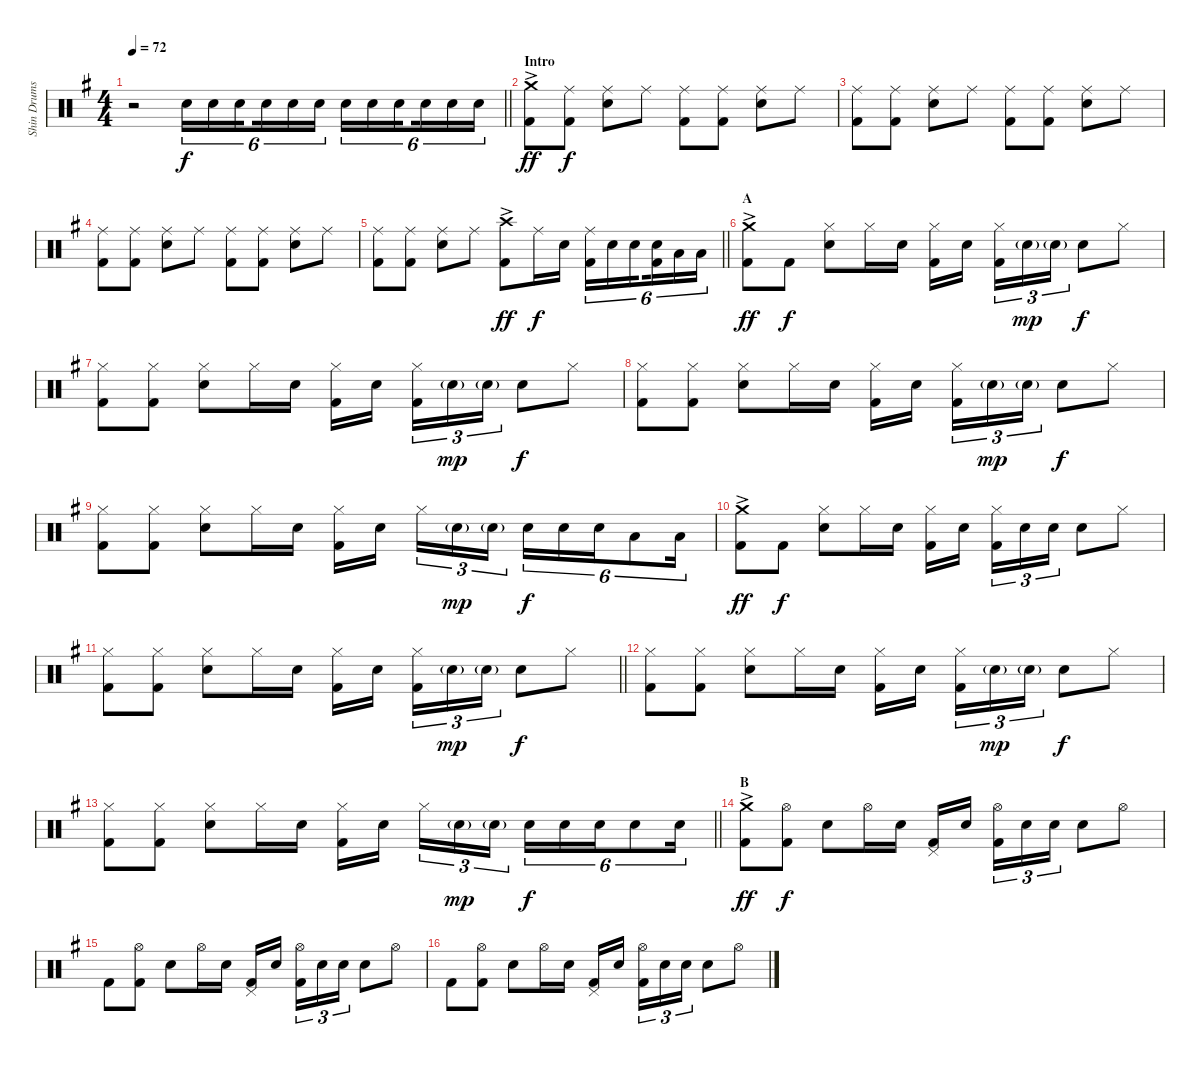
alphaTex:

\track ("Shin Drums" "Shin Drums") {instrument percussion}
\staff {score}
\articulation defaults
\ts (4 4)
\tempo 72
\clef neutral
\barLineRight lightlight
\ks g
r.2{dy f} "Snare (hit) 2".16{tu (6 4)} "Snare (hit) 2".16{tu (6 4)} "Snare (hit) 2".16{tu (6 4) beam splitsecondary} "Snare (hit) 2".16{tu (6 4)} "Snare (hit) 2".16{tu (6 4)} "Snare (hit) 2".16{tu (6 4)} "Snare (hit) 2".16{tu (6 4)} "Snare (hit) 2".16{tu (6 4)} "Snare (hit) 2".16{tu (6 4) beam splitsecondary} "Snare (hit) 2".16{tu (6 4)} "Snare (hit) 2".16{tu (6 4)} "Snare (hit) 2".16{tu (6 4)} |
\section ("" "Intro")
("Crash medium (hit)"{ac} "Kick (hit) 2"{ac}).8{dy ff} ("Ride (middle)" "Kick (hit) 2").8{dy f} ("Ride (middle)" "Snare (hit) 2").8 "Ride (middle)".8 ("Ride (middle)" "Kick (hit) 2").8 ("Ride (middle)" "Kick (hit) 2").8 ("Ride (middle)" "Snare (hit) 2").8 "Ride (middle)".8 |
("Ride (middle)" "Kick (hit) 2").8 ("Ride (middle)" "Kick (hit) 2").8 ("Ride (middle)" "Snare (hit) 2").8 "Ride (middle)".8 ("Ride (middle)" "Kick (hit) 2").8 ("Ride (middle)" "Kick (hit) 2").8 ("Ride (middle)" "Snare (hit) 2").8 "Ride (middle)".8 |
("Ride (middle)" "Kick (hit) 2").8 ("Ride (middle)" "Kick (hit) 2").8 ("Ride (middle)" "Snare (hit) 2").8 "Ride (middle)".8 ("Ride (middle)" "Kick (hit) 2").8 ("Ride (middle)" "Kick (hit) 2").8 ("Ride (middle)" "Snare (hit) 2").8 "Ride (middle)".8 |
\barLineRight lightlight
("Ride (middle)" "Kick (hit) 2").8 ("Ride (middle)" "Kick (hit) 2").8 ("Ride (middle)" "Snare (hit) 2").8 "Ride (middle)".8 ("Crash high (hit)"{ac} "Kick (hit) 2"{ac}).8{dy ff} "Ride (middle)".16{dy f} "Snare (hit) 2".16 ("Ride (middle)" "Kick (hit) 2").16{tu (6 4)} "Snare (hit) 2".16{tu (6 4)} "Snare (hit) 2".16{tu (6 4) beam splitsecondary} ("Snare (hit) 2" "Kick (hit) 2").16{tu (6 4)} "Low Tom (hit)".16{tu (6 4)} "Low Tom (hit)".16{tu (6 4)} |
\section ("" "A")
("Crash medium (hit)"{ac} "Kick (hit) 2"{ac}).8{dy ff} "Kick (hit) 2".8{dy f} ("Hi-Hat (closed)" "Snare (hit) 2").8 "Hi-Hat (closed)".16 "Snare (hit) 2".16 ("Hi-Hat (closed)" "Kick (hit) 2").16 "Snare (hit) 2".16{beam splitsecondary} ("Hi-Hat (closed)" "Kick (hit) 2").16{tu (3 2)} "Snare (hit) 2"{g}.16{tu (3 2) dy mp} "Snare (hit) 2"{g}.16{tu (3 2)} "Snare (hit) 2".8{dy f} "Hi-Hat (closed)".8 |
("Hi-Hat (closed)" "Kick (hit) 2").8 ("Hi-Hat (closed)" "Kick (hit) 2").8 ("Hi-Hat (closed)" "Snare (hit) 2").8 "Hi-Hat (closed)".16 "Snare (hit) 2".16 ("Hi-Hat (closed)" "Kick (hit) 2").16 "Snare (hit) 2".16{beam splitsecondary} ("Hi-Hat (closed)" "Kick (hit) 2").16{tu (3 2)} "Snare (hit) 2"{g}.16{tu (3 2) dy mp} "Snare (hit) 2"{g}.16{tu (3 2)} "Snare (hit) 2".8{dy f} "Hi-Hat (closed)".8 |
("Hi-Hat (closed)" "Kick (hit) 2").8 ("Hi-Hat (closed)" "Kick (hit) 2").8 ("Hi-Hat (closed)" "Snare (hit) 2").8 "Hi-Hat (closed)".16 "Snare (hit) 2".16 ("Hi-Hat (closed)" "Kick (hit) 2").16 "Snare (hit) 2".16{beam splitsecondary} ("Hi-Hat (closed)" "Kick (hit) 2").16{tu (3 2)} "Snare (hit) 2"{g}.16{tu (3 2) dy mp} "Snare (hit) 2"{g}.16{tu (3 2)} "Snare (hit) 2".8{dy f} "Hi-Hat (closed)".8 |
("Hi-Hat (closed)" "Kick (hit) 2").8 ("Hi-Hat (closed)" "Kick (hit) 2").8 ("Hi-Hat (closed)" "Snare (hit) 2").8 "Hi-Hat (closed)".16 "Snare (hit) 2".16 ("Hi-Hat (closed)" "Kick (hit) 2").16 "Snare (hit) 2".16{beam splitsecondary} "Hi-Hat (closed)".16{tu (3 2)} "Snare (hit) 2"{g}.16{tu (3 2) dy mp} "Snare (hit) 2"{g}.16{tu (3 2)} "Snare (hit) 2".16{tu (6 4) dy f} "Snare (hit) 2".16{tu (6 4)} "Snare (hit) 2".16{tu (6 4)} "Low Tom (hit)".8{tu (6 4)} "Low Tom (hit)".16{tu (6 4)} |
("Crash medium (hit)"{ac} "Kick (hit) 2"{ac}).8{dy ff} "Kick (hit) 2".8{dy f} ("Hi-Hat (closed)" "Snare (hit) 2").8 "Hi-Hat (closed)".16 "Snare (hit) 2".16 ("Hi-Hat (closed)" "Kick (hit) 2").16 "Snare (hit) 2".16{beam splitsecondary} ("Hi-Hat (closed)" "Kick (hit) 2").16{tu (3 2)} "Snare (hit) 2".16{tu (3 2)} "Snare (hit) 2".16{tu (3 2)} "Snare (hit) 2".8 "Hi-Hat (closed)".8 |
\barLineRight lightlight
("Hi-Hat (closed)" "Kick (hit) 2").8 ("Hi-Hat (closed)" "Kick (hit) 2").8 ("Hi-Hat (closed)" "Snare (hit) 2").8 "Hi-Hat (closed)".16 "Snare (hit) 2".16 ("Hi-Hat (closed)" "Kick (hit) 2").16 "Snare (hit) 2".16{beam splitsecondary} ("Hi-Hat (closed)" "Kick (hit) 2").16{tu (3 2)} "Snare (hit) 2"{g}.16{tu (3 2) dy mp} "Snare (hit) 2"{g}.16{tu (3 2)} "Snare (hit) 2".8{dy f} "Hi-Hat (closed)".8 |
\section ("" "")
("Hi-Hat (closed)" "Kick (hit) 2").8 ("Hi-Hat (closed)" "Kick (hit) 2").8 ("Hi-Hat (closed)" "Snare (hit) 2").8 "Hi-Hat (closed)".16 "Snare (hit) 2".16 ("Hi-Hat (closed)" "Kick (hit) 2").16 "Snare (hit) 2".16{beam splitsecondary} ("Hi-Hat (closed)" "Kick (hit) 2").16{tu (3 2)} "Snare (hit) 2"{g}.16{tu (3 2) dy mp} "Snare (hit) 2"{g}.16{tu (3 2)} "Snare (hit) 2".8{dy f} "Hi-Hat (closed)".8 |
\barLineRight lightlight
("Hi-Hat (closed)" "Kick (hit) 2").8 ("Hi-Hat (closed)" "Kick (hit) 2").8 ("Hi-Hat (closed)" "Snare (hit) 2").8 "Hi-Hat (closed)".16 "Snare (hit) 2".16 ("Hi-Hat (closed)" "Kick (hit) 2").16 "Snare (hit) 2".16{beam splitsecondary} "Hi-Hat (closed)".16{tu (3 2)} "Snare (hit) 2"{g}.16{tu (3 2) dy mp} "Snare (hit) 2"{g}.16{tu (3 2)} "Snare (hit) 2".16{tu (6 4) dy f} "Snare (hit) 2".16{tu (6 4)} "Snare (hit) 2".16{tu (6 4)} "Snare (hit) 2".8{tu (6 4)} "Snare (hit) 2".16{tu (6 4)} |
\section ("" "B")
("Crash medium (hit)"{ac} "Kick (hit) 2"{ac}).8{dy ff} ("Hi-Hat (open)" "Kick (hit) 2").8{dy f} "Snare (hit) 2".8 "Hi-Hat (open)".16 "Snare (hit) 2".16 ("Pedal Hi-Hat (hit)" "Kick (hit) 2").16 "Snare (hit) 2".16{beam splitsecondary} ("Hi-Hat (open)" "Kick (hit) 2").16{tu (3 2)} "Snare (hit) 2".16{tu (3 2)} "Snare (hit) 2".16{tu (3 2)} "Snare (hit) 2".8 "Hi-Hat (open)".8 |
"Kick (hit) 2".8 ("Hi-Hat (open)" "Kick (hit) 2").8 "Snare (hit) 2".8 "Hi-Hat (open)".16 "Snare (hit) 2".16 ("Pedal Hi-Hat (hit)" "Kick (hit) 2").16 "Snare (hit) 2".16{beam splitsecondary} ("Hi-Hat (open)" "Kick (hit) 2").16{tu (3 2)} "Snare (hit) 2".16{tu (3 2)} "Snare (hit) 2".16{tu (3 2)} "Snare (hit) 2".8 "Hi-Hat (open)".8 |
"Kick (hit) 2".8 ("Hi-Hat (open)" "Kick (hit) 2").8 "Snare (hit) 2".8 "Hi-Hat (open)".16 "Snare (hit) 2".16 ("Pedal Hi-Hat (hit)" "Kick (hit) 2").16 "Snare (hit) 2".16{beam splitsecondary} ("Hi-Hat (open)" "Kick (hit) 2").16{tu (3 2)} "Snare (hit) 2".16{tu (3 2)} "Snare (hit) 2".16{tu (3 2)} "Snare (hit) 2".8 "Hi-Hat (open)".8
